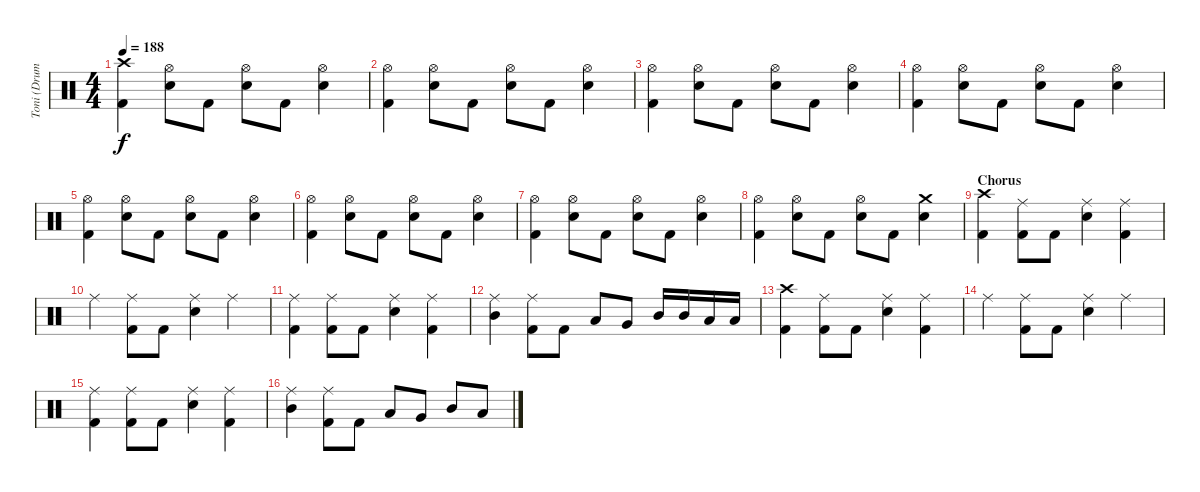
\track ("Toni (Drums)" "Toni (Drum") {instrument percussion}
\staff {score}
\articulation defaults
\ts (4 4)
\tempo 188
\clef neutral
\ks c
("Crash high (hit)" "Kick (hit) 2").4{dy f} ("Hi-Hat (open)" "Electric Snare (hit)").8 "Kick (hit) 2".8 ("Hi-Hat (open)" "Electric Snare (hit)").8 "Kick (hit) 2".8 ("Hi-Hat (open)" "Electric Snare (hit)").4 |
("Hi-Hat (open)" "Kick (hit) 2").4 ("Hi-Hat (open)" "Electric Snare (hit)").8 "Kick (hit) 2".8 ("Hi-Hat (open)" "Electric Snare (hit)").8 "Kick (hit) 2".8 ("Hi-Hat (open)" "Electric Snare (hit)").4 |
("Hi-Hat (open)" "Kick (hit) 2").4 ("Hi-Hat (open)" "Electric Snare (hit)").8 "Kick (hit) 2".8 ("Hi-Hat (open)" "Electric Snare (hit)").8 "Kick (hit) 2".8 ("Hi-Hat (open)" "Electric Snare (hit)").4 |
("Hi-Hat (open)" "Kick (hit) 2").4 ("Hi-Hat (open)" "Electric Snare (hit)").8 "Kick (hit) 2".8 ("Hi-Hat (open)" "Electric Snare (hit)").8 "Kick (hit) 2".8 ("Hi-Hat (open)" "Electric Snare (hit)").4 |
("Hi-Hat (open)" "Kick (hit) 2").4 ("Hi-Hat (open)" "Electric Snare (hit)").8 "Kick (hit) 2".8 ("Hi-Hat (open)" "Electric Snare (hit)").8 "Kick (hit) 2".8 ("Hi-Hat (open)" "Electric Snare (hit)").4 |
("Hi-Hat (open)" "Kick (hit) 2").4 ("Hi-Hat (open)" "Electric Snare (hit)").8 "Kick (hit) 2".8 ("Hi-Hat (open)" "Electric Snare (hit)").8 "Kick (hit) 2".8 ("Hi-Hat (open)" "Electric Snare (hit)").4 |
("Hi-Hat (open)" "Kick (hit) 2").4 ("Hi-Hat (open)" "Electric Snare (hit)").8 "Kick (hit) 2".8 ("Hi-Hat (open)" "Electric Snare (hit)").8 "Kick (hit) 2".8 ("Hi-Hat (open)" "Electric Snare (hit)").4 |
("Hi-Hat (open)" "Kick (hit) 2").4 ("Hi-Hat (open)" "Electric Snare (hit)").8 "Kick (hit) 2".8 ("Hi-Hat (open)" "Electric Snare (hit)").8 "Kick (hit) 2".8 ("Crash medium (hit)" "Electric Snare (hit)").4 |
\section ("" "Chorus")
("Crash high (hit)" "Kick (hit) 2").4 ("Ride (middle)" "Kick (hit) 2").8 "Kick (hit) 2".8 ("Ride (middle)" "Electric Snare (hit)").4 ("Ride (middle)" "Kick (hit) 2").4 |
"Ride (middle)".4 ("Ride (middle)" "Kick (hit) 2").8 "Kick (hit) 2".8 ("Ride (middle)" "Electric Snare (hit)").4 "Ride (middle)".4 |
("Ride (middle)" "Kick (hit) 2").4 ("Ride (middle)" "Kick (hit) 2").8 "Kick (hit) 2".8 ("Ride (middle)" "Electric Snare (hit)").4 ("Ride (middle)" "Kick (hit) 2").4 |
("Ride (middle)" "Mid Tom (hit)").4 ("Ride (middle)" "Kick (hit) 2").8 "Kick (hit) 2".8 "Low Tom (hit)".8 "Very Low Tom (hit)".8 "Mid Tom (hit)".16 "Mid Tom (hit)".16 "Low Tom (hit)".16 "Low Tom (hit)".16 |
("Crash high (hit)" "Kick (hit) 2").4 ("Ride (middle)" "Kick (hit) 2").8 "Kick (hit) 2".8 ("Ride (middle)" "Electric Snare (hit)").4 ("Ride (middle)" "Kick (hit) 2").4 |
"Ride (middle)".4 ("Ride (middle)" "Kick (hit) 2").8 "Kick (hit) 2".8 ("Ride (middle)" "Electric Snare (hit)").4 "Ride (middle)".4 |
("Ride (middle)" "Kick (hit) 2").4 ("Ride (middle)" "Kick (hit) 2").8 "Kick (hit) 2".8 ("Ride (middle)" "Electric Snare (hit)").4 ("Ride (middle)" "Kick (hit) 2").4 |
("Ride (middle)" "Mid Tom (hit)").4 ("Ride (middle)" "Kick (hit) 2").8 "Kick (hit) 2".8 "Low Tom (hit)".8 "Very Low Tom (hit)".8 "Mid Tom (hit)".8 "Low Tom (hit)".8
